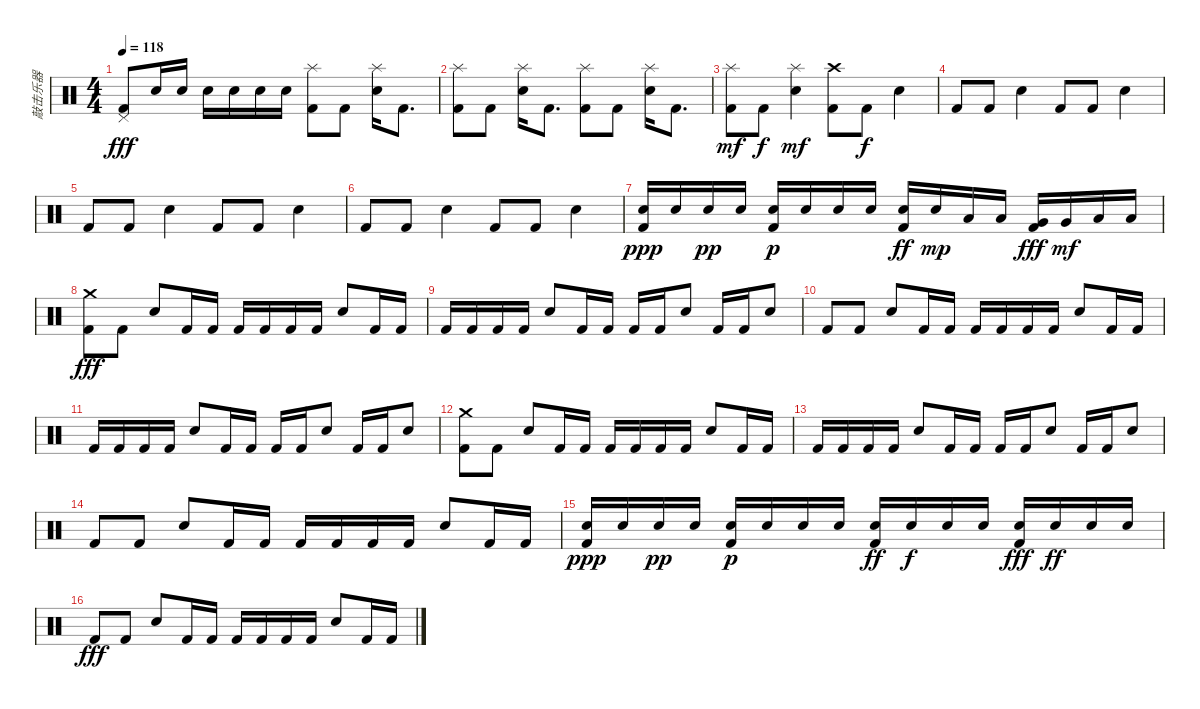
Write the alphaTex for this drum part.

\track ("敲击乐器" "敲击乐器") {instrument percussion}
\staff {score}
\articulation defaults
\ts (4 4)
\tempo 118
\clef neutral
\ks c
("Pedal Hi-Hat (hit)" "Kick (hit) 2").8{dy fff} "Snare (hit) 2".16 "Snare (hit) 2".16 "Snare (hit) 2".16 "Snare (hit) 2".16 "Snare (hit) 2".16 "Snare (hit) 2".16 ("Splash (hit)" "Kick (hit) 2").8 "Kick (hit) 2".8 ("Splash (hit)" "Snare (hit) 2").16 "Kick (hit) 2".8{d} |
("Splash (hit)" "Kick (hit) 2").8 "Kick (hit) 2".8 ("Splash (hit)" "Snare (hit) 2").16 "Kick (hit) 2".8{d} ("Splash (hit)" "Kick (hit) 2").8 "Kick (hit) 2".8 ("Splash (hit)" "Snare (hit) 2").16 "Kick (hit) 2".8{d} |
("Splash (hit)" "Kick (hit) 2").8{dy mf} "Kick (hit) 2".8{dy f} ("Splash (hit)" "Snare (hit) 2").4{dy mf} ("Crash high (hit)" "Kick (hit) 2").8 "Kick (hit) 2".8{dy f} "Snare (hit) 2".4 |
"Kick (hit) 2".8 "Kick (hit) 2".8 "Snare (hit) 2".4 "Kick (hit) 2".8 "Kick (hit) 2".8 "Snare (hit) 2".4 |
"Kick (hit) 2".8 "Kick (hit) 2".8 "Snare (hit) 2".4 "Kick (hit) 2".8 "Kick (hit) 2".8 "Snare (hit) 2".4 |
"Kick (hit) 2".8 "Kick (hit) 2".8 "Snare (hit) 2".4 "Kick (hit) 2".8 "Kick (hit) 2".8 "Snare (hit) 2".4 |
("Snare (hit) 2" "Kick (hit) 2").16{dy ppp} "Snare (hit) 2".16 "Snare (hit) 2".16{dy pp} "Snare (hit) 2".16 ("Snare (hit) 2" "Kick (hit) 2").16{dy p} "Snare (hit) 2".16 "Snare (hit) 2".16 "Snare (hit) 2".16 ("Snare (hit) 2" "Kick (hit) 2").16{dy ff} "Snare (hit) 2".16{dy mp} "Low Tom (hit)".16 "Low Tom (hit)".16 ("Very Low Tom (hit)" "Kick (hit) 2").16{dy fff} "Very Low Tom (hit)".16{dy mf} "Low Floor Tom (hit)".16 "Low Floor Tom (hit)".16 |
("Crash medium (hit)" "Kick (hit) 2").8{dy fff} "Kick (hit) 2".8 "Snare (hit) 2".8 "Kick (hit) 2".16 "Kick (hit) 2".16 "Kick (hit) 2".16 "Kick (hit) 2".16 "Kick (hit) 2".16 "Kick (hit) 2".16 "Snare (hit) 2".8 "Kick (hit) 2".16 "Kick (hit) 2".16 |
"Kick (hit) 2".16 "Kick (hit) 2".16 "Kick (hit) 2".16 "Kick (hit) 2".16 "Snare (hit) 2".8 "Kick (hit) 2".16 "Kick (hit) 2".16 "Kick (hit) 2".16 "Kick (hit) 2".16 "Snare (hit) 2".8 "Kick (hit) 2".16 "Kick (hit) 2".16 "Snare (hit) 2".8 |
"Kick (hit) 2".8 "Kick (hit) 2".8 "Snare (hit) 2".8 "Kick (hit) 2".16 "Kick (hit) 2".16 "Kick (hit) 2".16 "Kick (hit) 2".16 "Kick (hit) 2".16 "Kick (hit) 2".16 "Snare (hit) 2".8 "Kick (hit) 2".16 "Kick (hit) 2".16 |
"Kick (hit) 2".16 "Kick (hit) 2".16 "Kick (hit) 2".16 "Kick (hit) 2".16 "Snare (hit) 2".8 "Kick (hit) 2".16 "Kick (hit) 2".16 "Kick (hit) 2".16 "Kick (hit) 2".16 "Snare (hit) 2".8 "Kick (hit) 2".16 "Kick (hit) 2".16 "Snare (hit) 2".8 |
("Crash medium (hit)" "Kick (hit) 2").8 "Kick (hit) 2".8 "Snare (hit) 2".8 "Kick (hit) 2".16 "Kick (hit) 2".16 "Kick (hit) 2".16 "Kick (hit) 2".16 "Kick (hit) 2".16 "Kick (hit) 2".16 "Snare (hit) 2".8 "Kick (hit) 2".16 "Kick (hit) 2".16 |
"Kick (hit) 2".16 "Kick (hit) 2".16 "Kick (hit) 2".16 "Kick (hit) 2".16 "Snare (hit) 2".8 "Kick (hit) 2".16 "Kick (hit) 2".16 "Kick (hit) 2".16 "Kick (hit) 2".16 "Snare (hit) 2".8 "Kick (hit) 2".16 "Kick (hit) 2".16 "Snare (hit) 2".8 |
"Kick (hit) 2".8 "Kick (hit) 2".8 "Snare (hit) 2".8 "Kick (hit) 2".16 "Kick (hit) 2".16 "Kick (hit) 2".16 "Kick (hit) 2".16 "Kick (hit) 2".16 "Kick (hit) 2".16 "Snare (hit) 2".8 "Kick (hit) 2".16 "Kick (hit) 2".16 |
("Snare (hit) 2" "Kick (hit) 2").16{dy ppp} "Snare (hit) 2".16 "Snare (hit) 2".16{dy pp} "Snare (hit) 2".16 ("Snare (hit) 2" "Kick (hit) 2").16{dy p} "Snare (hit) 2".16 "Snare (hit) 2".16 "Snare (hit) 2".16 ("Snare (hit) 2" "Kick (hit) 2").16{dy ff} "Snare (hit) 2".16{dy f} "Snare (hit) 2".16 "Snare (hit) 2".16 ("Snare (hit) 2" "Kick (hit) 2").16{dy fff} "Snare (hit) 2".16{dy ff} "Snare (hit) 2".16 "Snare (hit) 2".16 |
"Kick (hit) 2".8{dy fff} "Kick (hit) 2".8 "Snare (hit) 2".8 "Kick (hit) 2".16 "Kick (hit) 2".16 "Kick (hit) 2".16 "Kick (hit) 2".16 "Kick (hit) 2".16 "Kick (hit) 2".16 "Snare (hit) 2".8 "Kick (hit) 2".16 "Kick (hit) 2".16
